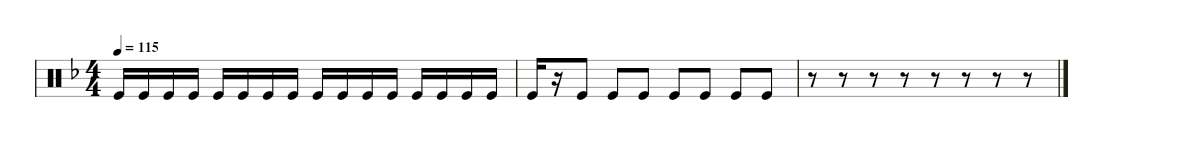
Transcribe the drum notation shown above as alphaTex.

\hideDynamics
\bracketExtendMode groupsimilarinstruments
\singleTrackTrackNamePolicy hidden
\multiTrackTrackNamePolicy hidden
\firstSystemTrackNameOrientation horizontal
\otherSystemsTrackNameOrientation horizontal
\chordDiagramsInScore
\defaultBarNumberDisplay Hide
\track ("Tambourine" "Tamb.") {instrument percussion}
\staff {score}
\articulation defaults
\ts (4 4)
\tempo 115
\clef neutral
\ks dminor "Kick (hit)".16{dy f} "Kick (hit)".16 "Kick (hit)".16 "Kick (hit)".16 "Kick (hit)".16 "Kick (hit)".16 "Kick (hit)".16 "Kick (hit)".16 "Kick (hit)".16 "Kick (hit)".16 "Kick (hit)".16 "Kick (hit)".16 "Kick (hit)".16 "Kick (hit)".16 "Kick (hit)".16 "Kick (hit)".16
|
"Kick (hit)".16 r.16 "Kick (hit)".8 "Kick (hit)".8 "Kick (hit)".8 "Kick (hit)".8 "Kick (hit)".8 "Kick (hit)".8 "Kick (hit)".8 |
r.8 r.8 r.8 r.8 r.8 r.8 r.8 r.8
